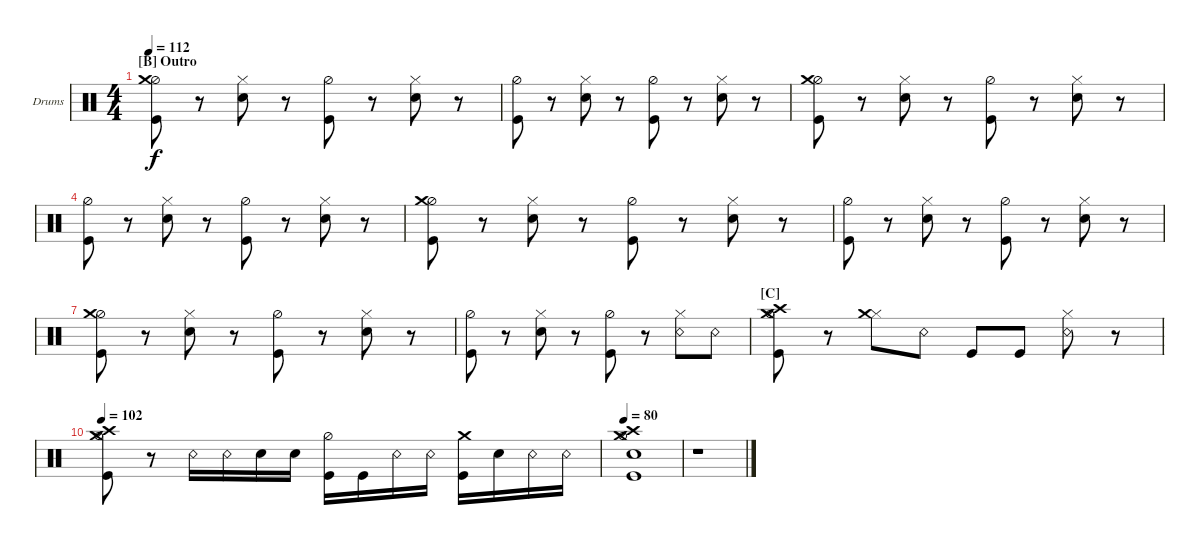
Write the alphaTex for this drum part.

\bracketExtendMode nobrackets
\firstSystemTrackNameOrientation horizontal
\otherSystemsTrackNameOrientation horizontal
\defaultBarNumberDisplay FirstOfSystem
\track ("Drumkit" "Drums") {instrument percussion}
\staff {score}
\articulation defaults
\ts (4 4)
\section ("B" "Outro")
\tempo 112
\clef neutral
\ks c
("Kick (hit)" "Hi-Hat (half)" "Crash medium (hit)").8{dy f} r.8 ("Snare (hit) 2" "Hi-Hat (closed)").8 r.8 ("Kick (hit)" "Hi-Hat (half)").8 r.8 ("Snare (hit) 2" "Hi-Hat (closed)").8 r.8 |
("Kick (hit)" "Hi-Hat (half)").8 r.8 ("Snare (hit) 2" "Hi-Hat (closed)").8 r.8 ("Kick (hit)" "Hi-Hat (half)").8 r.8 ("Snare (hit) 2" "Hi-Hat (closed)").8 r.8 |
("Kick (hit)" "Hi-Hat (half)" "Crash medium (hit)").8 r.8 ("Snare (hit) 2" "Hi-Hat (closed)").8 r.8 ("Kick (hit)" "Hi-Hat (half)").8 r.8 ("Snare (hit) 2" "Hi-Hat (closed)").8 r.8 |
("Kick (hit)" "Hi-Hat (half)").8 r.8 ("Snare (hit) 2" "Hi-Hat (closed)").8 r.8 ("Kick (hit)" "Hi-Hat (half)").8 r.8 ("Snare (hit) 2" "Hi-Hat (closed)").8 r.8 |
("Kick (hit)" "Hi-Hat (half)" "Crash medium (hit)").8 r.8 ("Snare (hit) 2" "Hi-Hat (closed)").8 r.8 ("Kick (hit)" "Hi-Hat (half)").8 r.8 ("Snare (hit) 2" "Hi-Hat (closed)").8 r.8 |
("Kick (hit)" "Hi-Hat (half)").8 r.8 ("Snare (hit) 2" "Hi-Hat (closed)").8 r.8 ("Kick (hit)" "Hi-Hat (half)").8 r.8 ("Snare (hit) 2" "Hi-Hat (closed)").8 r.8 |
("Kick (hit)" "Hi-Hat (half)" "Crash medium (hit)").8 r.8 ("Snare (hit) 2" "Hi-Hat (closed)").8 r.8 ("Kick (hit)" "Hi-Hat (half)").8 r.8 ("Snare (hit) 2" "Hi-Hat (closed)").8 r.8 |
("Kick (hit)" "Hi-Hat (half)").8 r.8 ("Snare (hit) 2" "Hi-Hat (closed)").8 r.8 ("Kick (hit)" "Hi-Hat (half)").8 r.8 ("Snare (rim shot)" "Hi-Hat (closed)").8 "Snare (rim shot)".8 |
\section ("C" "")
("Kick (hit)" "Hi-Hat (half)" "Crash medium (hit)" "Crash high (hit)").8 r.8 ("Hi-Hat (closed)" "Crash medium (hit)").8 "Snare (rim shot)".8 "Kick (hit)".8 "Kick (hit)".8 ("Snare (rim shot)" "Hi-Hat (closed)").8 r.8 |
\tempo 102
("Kick (hit)" "Hi-Hat (half)" "Crash medium (hit)" "Crash high (hit)").8 r.8 "Snare (rim shot)".16 "Snare (rim shot)".16 "Snare (hit) 2".16 "Snare (hit) 2".16 ("Kick (hit)" "Hi-Hat (half)").16 "Kick (hit)".16 "Snare (rim shot)".16 "Snare (rim shot)".16 ("Crash medium (hit)" "Kick (hit)").16 "Snare (hit) 2".16 "Snare (rim shot)".16 "Snare (rim shot)".16 |
\tempo 80
("Kick (hit)" "Hi-Hat (half)" "Crash medium (hit)" "Crash high (hit)" "Snare (hit) 2").1 |
r.1
